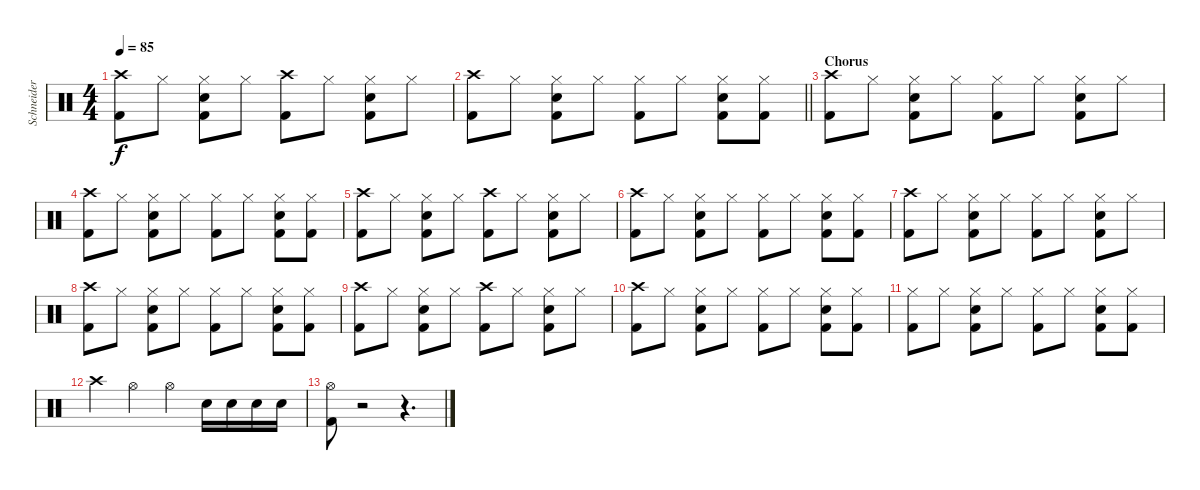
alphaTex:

\track ("Schneider" "Schneider") {instrument percussion}
\staff {score}
\articulation defaults
\ts (4 4)
\tempo 85
\clef neutral
\ks c
("Crash high (hit)" "Kick (hit) 2").8{dy f} "Hi-Hat (closed)".8 ("Hi-Hat (closed)" "Electric Snare (hit)" "Kick (hit) 2").8 "Hi-Hat (closed)".8 ("Crash high (hit)" "Kick (hit) 2").8 "Hi-Hat (closed)".8 ("Hi-Hat (closed)" "Electric Snare (hit)" "Kick (hit) 2").8 "Hi-Hat (closed)".8 |
\barLineRight lightlight
("Crash high (hit)" "Kick (hit) 2").8 "Hi-Hat (closed)".8 ("Hi-Hat (closed)" "Electric Snare (hit)" "Kick (hit) 2").8 "Hi-Hat (closed)".8 ("Hi-Hat (closed)" "Kick (hit) 2").8 "Hi-Hat (closed)".8 ("Hi-Hat (closed)" "Electric Snare (hit)" "Kick (hit) 2").8 ("Hi-Hat (closed)" "Kick (hit) 2").8 |
\section ("" "Chorus")
("Crash high (hit)" "Kick (hit) 2").8 "Hi-Hat (closed)".8 ("Hi-Hat (closed)" "Electric Snare (hit)" "Kick (hit) 2").8 "Hi-Hat (closed)".8 ("Hi-Hat (closed)" "Kick (hit) 2").8 "Hi-Hat (closed)".8 ("Hi-Hat (closed)" "Electric Snare (hit)" "Kick (hit) 2").8 "Hi-Hat (closed)".8 |
("Crash high (hit)" "Kick (hit) 2").8 "Hi-Hat (closed)".8 ("Hi-Hat (closed)" "Electric Snare (hit)" "Kick (hit) 2").8 "Hi-Hat (closed)".8 ("Hi-Hat (closed)" "Kick (hit) 2").8 "Hi-Hat (closed)".8 ("Hi-Hat (closed)" "Electric Snare (hit)" "Kick (hit) 2").8 ("Hi-Hat (closed)" "Kick (hit) 2").8 |
("Crash high (hit)" "Kick (hit) 2").8 "Hi-Hat (closed)".8 ("Hi-Hat (closed)" "Electric Snare (hit)" "Kick (hit) 2").8 "Hi-Hat (closed)".8 ("Crash high (hit)" "Kick (hit) 2").8 "Hi-Hat (closed)".8 ("Hi-Hat (closed)" "Electric Snare (hit)" "Kick (hit) 2").8 "Hi-Hat (closed)".8 |
("Crash high (hit)" "Kick (hit) 2").8 "Hi-Hat (closed)".8 ("Hi-Hat (closed)" "Electric Snare (hit)" "Kick (hit) 2").8 "Hi-Hat (closed)".8 ("Hi-Hat (closed)" "Kick (hit) 2").8 "Hi-Hat (closed)".8 ("Hi-Hat (closed)" "Electric Snare (hit)" "Kick (hit) 2").8 ("Hi-Hat (closed)" "Kick (hit) 2").8 |
("Crash high (hit)" "Kick (hit) 2").8 "Hi-Hat (closed)".8 ("Hi-Hat (closed)" "Electric Snare (hit)" "Kick (hit) 2").8 "Hi-Hat (closed)".8 ("Hi-Hat (closed)" "Kick (hit) 2").8 "Hi-Hat (closed)".8 ("Hi-Hat (closed)" "Electric Snare (hit)" "Kick (hit) 2").8 "Hi-Hat (closed)".8 |
("Crash high (hit)" "Kick (hit) 2").8 "Hi-Hat (closed)".8 ("Hi-Hat (closed)" "Electric Snare (hit)" "Kick (hit) 2").8 "Hi-Hat (closed)".8 ("Hi-Hat (closed)" "Kick (hit) 2").8 "Hi-Hat (closed)".8 ("Hi-Hat (closed)" "Electric Snare (hit)" "Kick (hit) 2").8 ("Hi-Hat (closed)" "Kick (hit) 2").8 |
("Crash high (hit)" "Kick (hit) 2").8 "Hi-Hat (closed)".8 ("Hi-Hat (closed)" "Electric Snare (hit)" "Kick (hit) 2").8 "Hi-Hat (closed)".8 ("Crash high (hit)" "Kick (hit) 2").8 "Hi-Hat (closed)".8 ("Hi-Hat (closed)" "Electric Snare (hit)" "Kick (hit) 2").8 "Hi-Hat (closed)".8 |
("Crash high (hit)" "Kick (hit) 2").8 "Hi-Hat (closed)".8 ("Hi-Hat (closed)" "Electric Snare (hit)" "Kick (hit) 2").8 "Hi-Hat (closed)".8 ("Hi-Hat (closed)" "Kick (hit) 2").8 "Hi-Hat (closed)".8 ("Hi-Hat (closed)" "Electric Snare (hit)" "Kick (hit) 2").8 ("Hi-Hat (closed)" "Kick (hit) 2").8 |
("Hi-Hat (closed)" "Kick (hit) 2").8 "Hi-Hat (closed)".8 ("Hi-Hat (closed)" "Electric Snare (hit)" "Kick (hit) 2").8 "Hi-Hat (closed)".8 ("Hi-Hat (closed)" "Kick (hit) 2").8 "Hi-Hat (closed)".8 ("Hi-Hat (closed)" "Electric Snare (hit)" "Kick (hit) 2").8 ("Hi-Hat (closed)" "Kick (hit) 2").8 |
"Crash high (hit)".4 "Hi-Hat (open)".4 "Hi-Hat (open)".4 "Electric Snare (hit)".16 "Electric Snare (hit)".16 "Electric Snare (hit)".16 "Electric Snare (hit)".16 |
("Hi-Hat (open)" "Kick (hit) 2").8 r.2 r.4{d}
